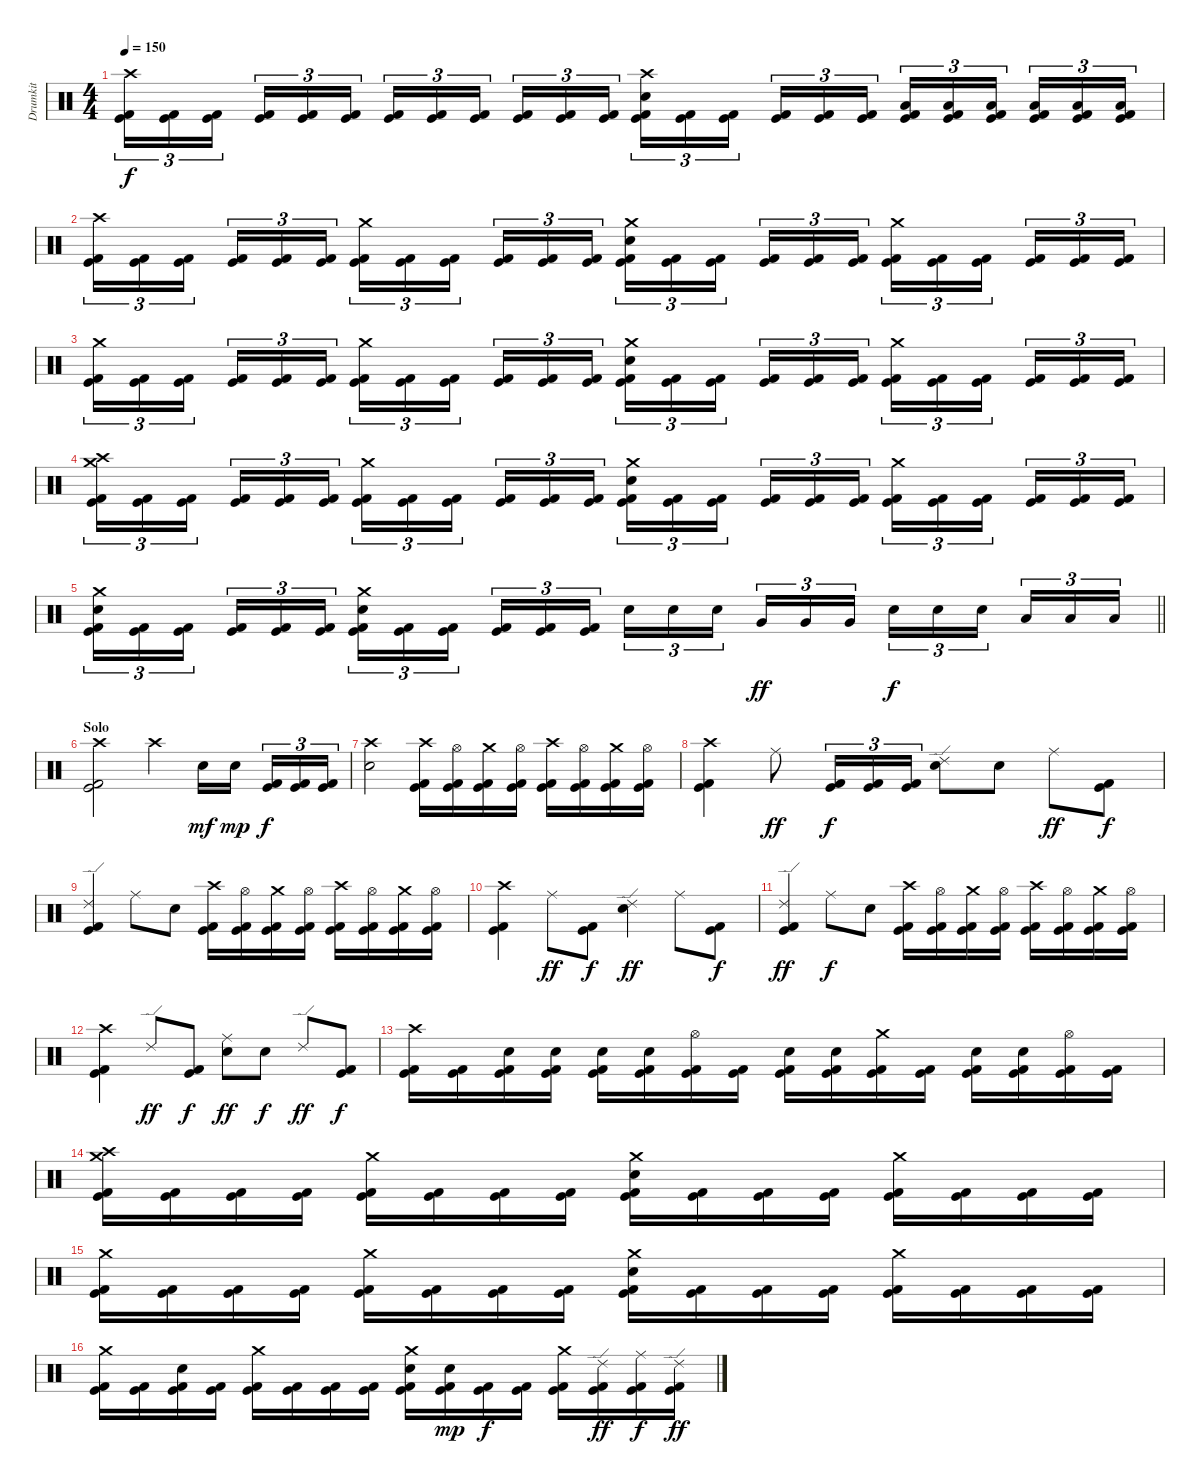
\track ("Drumkit" "Drumkit") {instrument percussion}
\staff {score}
\articulation defaults
\ts (4 4)
\tempo 150
\clef neutral
\ks c
("Crash high (hit)" "Kick (hit)" "Kick (hit) 2").16{tu (3 2) dy f} ("Kick (hit)" "Kick (hit) 2").16{tu (3 2)} ("Kick (hit)" "Kick (hit) 2").16{tu (3 2) beam splitsecondary} ("Kick (hit)" "Kick (hit) 2").16{tu (3 2)} ("Kick (hit)" "Kick (hit) 2").16{tu (3 2)} ("Kick (hit)" "Kick (hit) 2").16{tu (3 2)} ("Kick (hit)" "Kick (hit) 2").16{tu (3 2)} ("Kick (hit)" "Kick (hit) 2").16{tu (3 2)} ("Kick (hit)" "Kick (hit) 2").16{tu (3 2) beam splitsecondary} ("Kick (hit)" "Kick (hit) 2").16{tu (3 2)} ("Kick (hit)" "Kick (hit) 2").16{tu (3 2)} ("Kick (hit)" "Kick (hit) 2").16{tu (3 2)} ("Crash high (hit)" "Electric Snare (hit)" "Kick (hit)" "Kick (hit) 2").16{tu (3 2)} ("Kick (hit)" "Kick (hit) 2").16{tu (3 2)} ("Kick (hit)" "Kick (hit) 2").16{tu (3 2) beam splitsecondary} ("Kick (hit)" "Kick (hit) 2").16{tu (3 2)} ("Kick (hit)" "Kick (hit) 2").16{tu (3 2)} ("Kick (hit)" "Kick (hit) 2").16{tu (3 2)} ("Low Tom (hit)" "Kick (hit)" "Kick (hit) 2").16{tu (3 2)} ("Low Tom (hit)" "Kick (hit)" "Kick (hit) 2").16{tu (3 2)} ("Low Tom (hit)" "Kick (hit)" "Kick (hit) 2").16{tu (3 2) beam splitsecondary} ("Low Tom (hit)" "Kick (hit)" "Kick (hit) 2").16{tu (3 2)} ("Low Tom (hit)" "Kick (hit)" "Kick (hit) 2").16{tu (3 2)} ("Low Tom (hit)" "Kick (hit)" "Kick (hit) 2").16{tu (3 2)} |
("Crash high (hit)" "Kick (hit)" "Kick (hit) 2").16{tu (3 2)} ("Kick (hit)" "Kick (hit) 2").16{tu (3 2)} ("Kick (hit)" "Kick (hit) 2").16{tu (3 2) beam splitsecondary} ("Kick (hit)" "Kick (hit) 2").16{tu (3 2)} ("Kick (hit)" "Kick (hit) 2").16{tu (3 2)} ("Kick (hit)" "Kick (hit) 2").16{tu (3 2)} ("Crash medium (hit)" "Kick (hit)" "Kick (hit) 2").16{tu (3 2)} ("Kick (hit)" "Kick (hit) 2").16{tu (3 2)} ("Kick (hit)" "Kick (hit) 2").16{tu (3 2) beam splitsecondary} ("Kick (hit)" "Kick (hit) 2").16{tu (3 2)} ("Kick (hit)" "Kick (hit) 2").16{tu (3 2)} ("Kick (hit)" "Kick (hit) 2").16{tu (3 2)} ("Crash medium (hit)" "Electric Snare (hit)" "Kick (hit)" "Kick (hit) 2").16{tu (3 2)} ("Kick (hit)" "Kick (hit) 2").16{tu (3 2)} ("Kick (hit)" "Kick (hit) 2").16{tu (3 2) beam splitsecondary} ("Kick (hit)" "Kick (hit) 2").16{tu (3 2)} ("Kick (hit)" "Kick (hit) 2").16{tu (3 2)} ("Kick (hit)" "Kick (hit) 2").16{tu (3 2)} ("Crash medium (hit)" "Kick (hit)" "Kick (hit) 2").16{tu (3 2)} ("Kick (hit)" "Kick (hit) 2").16{tu (3 2)} ("Kick (hit)" "Kick (hit) 2").16{tu (3 2) beam splitsecondary} ("Kick (hit)" "Kick (hit) 2").16{tu (3 2)} ("Kick (hit)" "Kick (hit) 2").16{tu (3 2)} ("Kick (hit)" "Kick (hit) 2").16{tu (3 2)} |
("Crash medium (hit)" "Kick (hit)" "Kick (hit) 2").16{tu (3 2)} ("Kick (hit)" "Kick (hit) 2").16{tu (3 2)} ("Kick (hit)" "Kick (hit) 2").16{tu (3 2) beam splitsecondary} ("Kick (hit)" "Kick (hit) 2").16{tu (3 2)} ("Kick (hit)" "Kick (hit) 2").16{tu (3 2)} ("Kick (hit)" "Kick (hit) 2").16{tu (3 2)} ("Crash medium (hit)" "Kick (hit)" "Kick (hit) 2").16{tu (3 2)} ("Kick (hit)" "Kick (hit) 2").16{tu (3 2)} ("Kick (hit)" "Kick (hit) 2").16{tu (3 2) beam splitsecondary} ("Kick (hit)" "Kick (hit) 2").16{tu (3 2)} ("Kick (hit)" "Kick (hit) 2").16{tu (3 2)} ("Kick (hit)" "Kick (hit) 2").16{tu (3 2)} ("Crash medium (hit)" "Electric Snare (hit)" "Kick (hit)" "Kick (hit) 2").16{tu (3 2)} ("Kick (hit)" "Kick (hit) 2").16{tu (3 2)} ("Kick (hit)" "Kick (hit) 2").16{tu (3 2) beam splitsecondary} ("Kick (hit)" "Kick (hit) 2").16{tu (3 2)} ("Kick (hit)" "Kick (hit) 2").16{tu (3 2)} ("Kick (hit)" "Kick (hit) 2").16{tu (3 2)} ("Crash medium (hit)" "Kick (hit)" "Kick (hit) 2").16{tu (3 2)} ("Kick (hit)" "Kick (hit) 2").16{tu (3 2)} ("Kick (hit)" "Kick (hit) 2").16{tu (3 2) beam splitsecondary} ("Kick (hit)" "Kick (hit) 2").16{tu (3 2)} ("Kick (hit)" "Kick (hit) 2").16{tu (3 2)} ("Kick (hit)" "Kick (hit) 2").16{tu (3 2)} |
("Crash high (hit)" "Crash medium (hit)" "Kick (hit)" "Kick (hit) 2").16{tu (3 2)} ("Kick (hit)" "Kick (hit) 2").16{tu (3 2)} ("Kick (hit)" "Kick (hit) 2").16{tu (3 2) beam splitsecondary} ("Kick (hit)" "Kick (hit) 2").16{tu (3 2)} ("Kick (hit)" "Kick (hit) 2").16{tu (3 2)} ("Kick (hit)" "Kick (hit) 2").16{tu (3 2)} ("Crash medium (hit)" "Kick (hit)" "Kick (hit) 2").16{tu (3 2)} ("Kick (hit)" "Kick (hit) 2").16{tu (3 2)} ("Kick (hit)" "Kick (hit) 2").16{tu (3 2) beam splitsecondary} ("Kick (hit)" "Kick (hit) 2").16{tu (3 2)} ("Kick (hit)" "Kick (hit) 2").16{tu (3 2)} ("Kick (hit)" "Kick (hit) 2").16{tu (3 2)} ("Crash medium (hit)" "Electric Snare (hit)" "Kick (hit)" "Kick (hit) 2").16{tu (3 2)} ("Kick (hit)" "Kick (hit) 2").16{tu (3 2)} ("Kick (hit)" "Kick (hit) 2").16{tu (3 2) beam splitsecondary} ("Kick (hit)" "Kick (hit) 2").16{tu (3 2)} ("Kick (hit)" "Kick (hit) 2").16{tu (3 2)} ("Kick (hit)" "Kick (hit) 2").16{tu (3 2)} ("Crash medium (hit)" "Kick (hit)" "Kick (hit) 2").16{tu (3 2)} ("Kick (hit)" "Kick (hit) 2").16{tu (3 2)} ("Kick (hit)" "Kick (hit) 2").16{tu (3 2) beam splitsecondary} ("Kick (hit)" "Kick (hit) 2").16{tu (3 2)} ("Kick (hit)" "Kick (hit) 2").16{tu (3 2)} ("Kick (hit)" "Kick (hit) 2").16{tu (3 2)} |
\barLineRight lightlight
("Crash medium (hit)" "Electric Snare (hit)" "Kick (hit)" "Kick (hit) 2").16{tu (3 2)} ("Kick (hit)" "Kick (hit) 2").16{tu (3 2)} ("Kick (hit)" "Kick (hit) 2").16{tu (3 2) beam splitsecondary} ("Kick (hit)" "Kick (hit) 2").16{tu (3 2)} ("Kick (hit)" "Kick (hit) 2").16{tu (3 2)} ("Kick (hit)" "Kick (hit) 2").16{tu (3 2)} ("Crash medium (hit)" "Electric Snare (hit)" "Kick (hit)" "Kick (hit) 2").16{tu (3 2)} ("Kick (hit)" "Kick (hit) 2").16{tu (3 2)} ("Kick (hit)" "Kick (hit) 2").16{tu (3 2) beam splitsecondary} ("Kick (hit)" "Kick (hit) 2").16{tu (3 2)} ("Kick (hit)" "Kick (hit) 2").16{tu (3 2)} ("Kick (hit)" "Kick (hit) 2").16{tu (3 2)} "Electric Snare (hit)".16{tu (3 2)} "Electric Snare (hit)".16{tu (3 2)} "Electric Snare (hit)".16{tu (3 2) beam splitsecondary} "Very Low Tom (hit)".16{tu (3 2) dy ff} "Very Low Tom (hit)".16{tu (3 2)} "Very Low Tom (hit)".16{tu (3 2)} "Electric Snare (hit)".16{tu (3 2) dy f} "Electric Snare (hit)".16{tu (3 2)} "Electric Snare (hit)".16{tu (3 2) beam splitsecondary} "Low Tom (hit)".16{tu (3 2)} "Low Tom (hit)".16{tu (3 2)} "Low Tom (hit)".16{tu (3 2)} |
\section ("" "Solo")
("Crash high (hit)" "Kick (hit)" "Kick (hit) 2").2 "Crash high (hit)".4 "Electric Snare (hit)".16{dy mf} "Electric Snare (hit)".16{dy mp beam splitsecondary} ("Kick (hit)" "Kick (hit) 2").16{tu (3 2) dy f} ("Kick (hit)" "Kick (hit) 2").16{tu (3 2)} ("Kick (hit)" "Kick (hit) 2").16{tu (3 2)} |
("Crash high (hit)" "Electric Snare (hit)").2 ("Crash high (hit)" "Kick (hit)" "Kick (hit) 2").16 ("Hi-Hat (open)" "Kick (hit)" "Kick (hit) 2").16 ("Crash medium (hit)" "Kick (hit)" "Kick (hit) 2").16 ("Hi-Hat (open)" "Kick (hit)" "Kick (hit) 2").16 ("Crash high (hit)" "Kick (hit)" "Kick (hit) 2").16 ("Hi-Hat (open)" "Kick (hit)" "Kick (hit) 2").16 ("Crash medium (hit)" "Kick (hit)" "Kick (hit) 2").16 ("Hi-Hat (open)" "Kick (hit)" "Kick (hit) 2").16 |
("Crash high (hit)" "Kick (hit)" "Kick (hit) 2").4 "Ride (middle)".8{dy ff} ("Kick (hit)" "Kick (hit) 2").16{tu (3 2) dy f} ("Kick (hit)" "Kick (hit) 2").16{tu (3 2)} ("Kick (hit)" "Kick (hit) 2").16{tu (3 2)} ("Ride (edge) 2" "Electric Snare (hit)").8 "Electric Snare (hit)".8 "Ride (middle)".8{dy ff} ("Kick (hit)" "Kick (hit) 2").8{dy f} |
("Ride (edge) 2" "Kick (hit)" "Kick (hit) 2").4 "Ride (middle)".8 "Electric Snare (hit)".8 ("Crash high (hit)" "Kick (hit)" "Kick (hit) 2").16 ("Hi-Hat (open)" "Kick (hit)" "Kick (hit) 2").16 ("Crash medium (hit)" "Kick (hit)" "Kick (hit) 2").16 ("Hi-Hat (open)" "Kick (hit)" "Kick (hit) 2").16 ("Crash high (hit)" "Kick (hit)" "Kick (hit) 2").16 ("Hi-Hat (open)" "Kick (hit)" "Kick (hit) 2").16 ("Crash medium (hit)" "Kick (hit)" "Kick (hit) 2").16 ("Hi-Hat (open)" "Kick (hit)" "Kick (hit) 2").16 |
("Crash high (hit)" "Kick (hit)" "Kick (hit) 2").4 "Ride (middle)".8{dy ff} ("Kick (hit)" "Kick (hit) 2").8{dy f} ("Ride (edge) 2" "Electric Snare (hit)").4{dy ff} "Ride (middle)".8 ("Kick (hit)" "Kick (hit) 2").8{dy f} |
("Ride (edge) 2" "Kick (hit)" "Kick (hit) 2").4{dy ff} "Ride (middle)".8{dy f} "Electric Snare (hit)".8 ("Crash high (hit)" "Kick (hit)" "Kick (hit) 2").16 ("Hi-Hat (open)" "Kick (hit)" "Kick (hit) 2").16 ("Crash medium (hit)" "Kick (hit)" "Kick (hit) 2").16 ("Hi-Hat (open)" "Kick (hit)" "Kick (hit) 2").16 ("Crash high (hit)" "Kick (hit)" "Kick (hit) 2").16 ("Hi-Hat (open)" "Kick (hit)" "Kick (hit) 2").16 ("Crash medium (hit)" "Kick (hit)" "Kick (hit) 2").16 ("Hi-Hat (open)" "Kick (hit)" "Kick (hit) 2").16 |
("Crash high (hit)" "Kick (hit)" "Kick (hit) 2").4 "Ride (edge) 2".8{dy ff} ("Kick (hit)" "Kick (hit) 2").8{dy f} ("Ride (middle)" "Electric Snare (hit)").8{dy ff} "Electric Snare (hit)".8{dy f} "Ride (edge) 2".8{dy ff} ("Kick (hit)" "Kick (hit) 2").8{dy f} |
("Crash high (hit)" "Kick (hit)" "Kick (hit) 2").16 ("Kick (hit)" "Kick (hit) 2").16 ("Electric Snare (hit)" "Kick (hit)" "Kick (hit) 2").16 ("Electric Snare (hit)" "Kick (hit)" "Kick (hit) 2").16 ("Electric Snare (hit)" "Kick (hit)" "Kick (hit) 2").16 ("Electric Snare (hit)" "Kick (hit)" "Kick (hit) 2").16 ("Hi-Hat (open)" "Kick (hit)" "Kick (hit) 2").16 ("Kick (hit)" "Kick (hit) 2").16 ("Electric Snare (hit)" "Kick (hit)" "Kick (hit) 2").16 ("Electric Snare (hit)" "Kick (hit)" "Kick (hit) 2").16 ("Crash medium (hit)" "Kick (hit)" "Kick (hit) 2").16 ("Kick (hit)" "Kick (hit) 2").16 ("Electric Snare (hit)" "Kick (hit)" "Kick (hit) 2").16 ("Electric Snare (hit)" "Kick (hit)" "Kick (hit) 2").16 ("Hi-Hat (open)" "Kick (hit)" "Kick (hit) 2").16 ("Kick (hit)" "Kick (hit) 2").16 |
("Crash high (hit)" "Crash medium (hit)" "Kick (hit)" "Kick (hit) 2").16 ("Kick (hit)" "Kick (hit) 2").16 ("Kick (hit)" "Kick (hit) 2").16 ("Kick (hit)" "Kick (hit) 2").16 ("Crash medium (hit)" "Kick (hit)" "Kick (hit) 2").16 ("Kick (hit)" "Kick (hit) 2").16 ("Kick (hit)" "Kick (hit) 2").16 ("Kick (hit)" "Kick (hit) 2").16 ("Crash medium (hit)" "Electric Snare (hit)" "Kick (hit)" "Kick (hit) 2").16 ("Kick (hit)" "Kick (hit) 2").16 ("Kick (hit)" "Kick (hit) 2").16 ("Kick (hit)" "Kick (hit) 2").16 ("Crash medium (hit)" "Kick (hit)" "Kick (hit) 2").16 ("Kick (hit)" "Kick (hit) 2").16 ("Kick (hit)" "Kick (hit) 2").16 ("Kick (hit)" "Kick (hit) 2").16 |
("Crash medium (hit)" "Kick (hit)" "Kick (hit) 2").16 ("Kick (hit)" "Kick (hit) 2").16 ("Kick (hit)" "Kick (hit) 2").16 ("Kick (hit)" "Kick (hit) 2").16 ("Crash medium (hit)" "Kick (hit)" "Kick (hit) 2").16 ("Kick (hit)" "Kick (hit) 2").16 ("Kick (hit)" "Kick (hit) 2").16 ("Kick (hit)" "Kick (hit) 2").16 ("Crash medium (hit)" "Electric Snare (hit)" "Kick (hit)" "Kick (hit) 2").16 ("Kick (hit)" "Kick (hit) 2").16 ("Kick (hit)" "Kick (hit) 2").16 ("Kick (hit)" "Kick (hit) 2").16 ("Crash medium (hit)" "Kick (hit)" "Kick (hit) 2").16 ("Kick (hit)" "Kick (hit) 2").16 ("Kick (hit)" "Kick (hit) 2").16 ("Kick (hit)" "Kick (hit) 2").16 |
("Crash medium (hit)" "Kick (hit)" "Kick (hit) 2").16 ("Kick (hit)" "Kick (hit) 2").16 ("Electric Snare (hit)" "Kick (hit)" "Kick (hit) 2").16 ("Kick (hit)" "Kick (hit) 2").16 ("Crash medium (hit)" "Kick (hit)" "Kick (hit) 2").16 ("Kick (hit)" "Kick (hit) 2").16 ("Kick (hit)" "Kick (hit) 2").16 ("Kick (hit)" "Kick (hit) 2").16 ("Crash medium (hit)" "Electric Snare (hit)" "Kick (hit)" "Kick (hit) 2").16 ("Electric Snare (hit)" "Kick (hit)" "Kick (hit) 2").16{dy mp} ("Kick (hit)" "Kick (hit) 2").16{dy f} ("Kick (hit)" "Kick (hit) 2").16 ("Crash medium (hit)" "Kick (hit)" "Kick (hit) 2").16 ("Ride (edge) 2" "Kick (hit)" "Kick (hit) 2").16{dy ff} ("Ride (middle)" "Kick (hit)" "Kick (hit) 2").16{dy f} ("Ride (edge) 2" "Kick (hit)" "Kick (hit) 2").16{dy ff}
